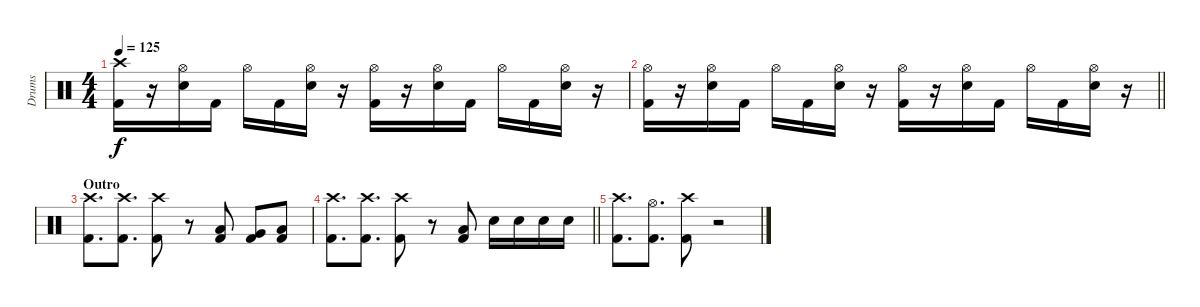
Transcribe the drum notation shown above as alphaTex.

\track ("Drums" "Drums") {instrument percussion}
\staff {score}
\articulation defaults
\ts (4 4)
\tempo 125
\clef neutral
\ks c
("Crash high (hit)" "Kick (hit) 2").16{dy f} r.16 ("Hi-Hat (open)" "Snare (hit) 2").16 "Kick (hit) 2".16 "Hi-Hat (open)".16 "Kick (hit) 2".16 ("Hi-Hat (open)" "Snare (hit) 2").16 r.16 ("Hi-Hat (open)" "Kick (hit) 2").16 r.16 ("Hi-Hat (open)" "Snare (hit) 2").16 "Kick (hit) 2".16 "Hi-Hat (open)".16 "Kick (hit) 2".16 ("Hi-Hat (open)" "Snare (hit) 2").16 r.16 |
\barLineRight lightlight
("Hi-Hat (open)" "Kick (hit) 2").16 r.16 ("Hi-Hat (open)" "Snare (hit) 2").16 "Kick (hit) 2".16 "Hi-Hat (open)".16 "Kick (hit) 2".16 ("Hi-Hat (open)" "Snare (hit) 2").16 r.16 ("Hi-Hat (open)" "Kick (hit) 2").16 r.16 ("Hi-Hat (open)" "Snare (hit) 2").16 "Kick (hit) 2".16 "Hi-Hat (open)".16 "Kick (hit) 2".16 ("Hi-Hat (open)" "Snare (hit) 2").16 r.16 |
\section ("" "Outro")
("Crash high (hit)" "Kick (hit) 2").8{d} ("Crash high (hit)" "Kick (hit) 2").8{d} ("Crash high (hit)" "Kick (hit) 2").8 r.8 ("Low Tom (hit)" "Kick (hit) 2").8 ("Very Low Tom (hit)" "Kick (hit) 2").8 ("Low Tom (hit)" "Kick (hit) 2").8 |
\barLineRight lightlight
("Crash high (hit)" "Kick (hit) 2").8{d} ("Crash high (hit)" "Kick (hit) 2").8{d} ("Crash high (hit)" "Kick (hit) 2").8 r.8 ("Low Tom (hit)" "Kick (hit) 2").8 "Snare (hit) 2".16 "Snare (hit) 2".16 "Snare (hit) 2".16 "Snare (hit) 2".16 |
("Crash high (hit)" "Kick (hit) 2").8{d} ("Hi-Hat (open)" "Kick (hit) 2").8{d} ("Crash high (hit)" "Kick (hit) 2").8 r.2
